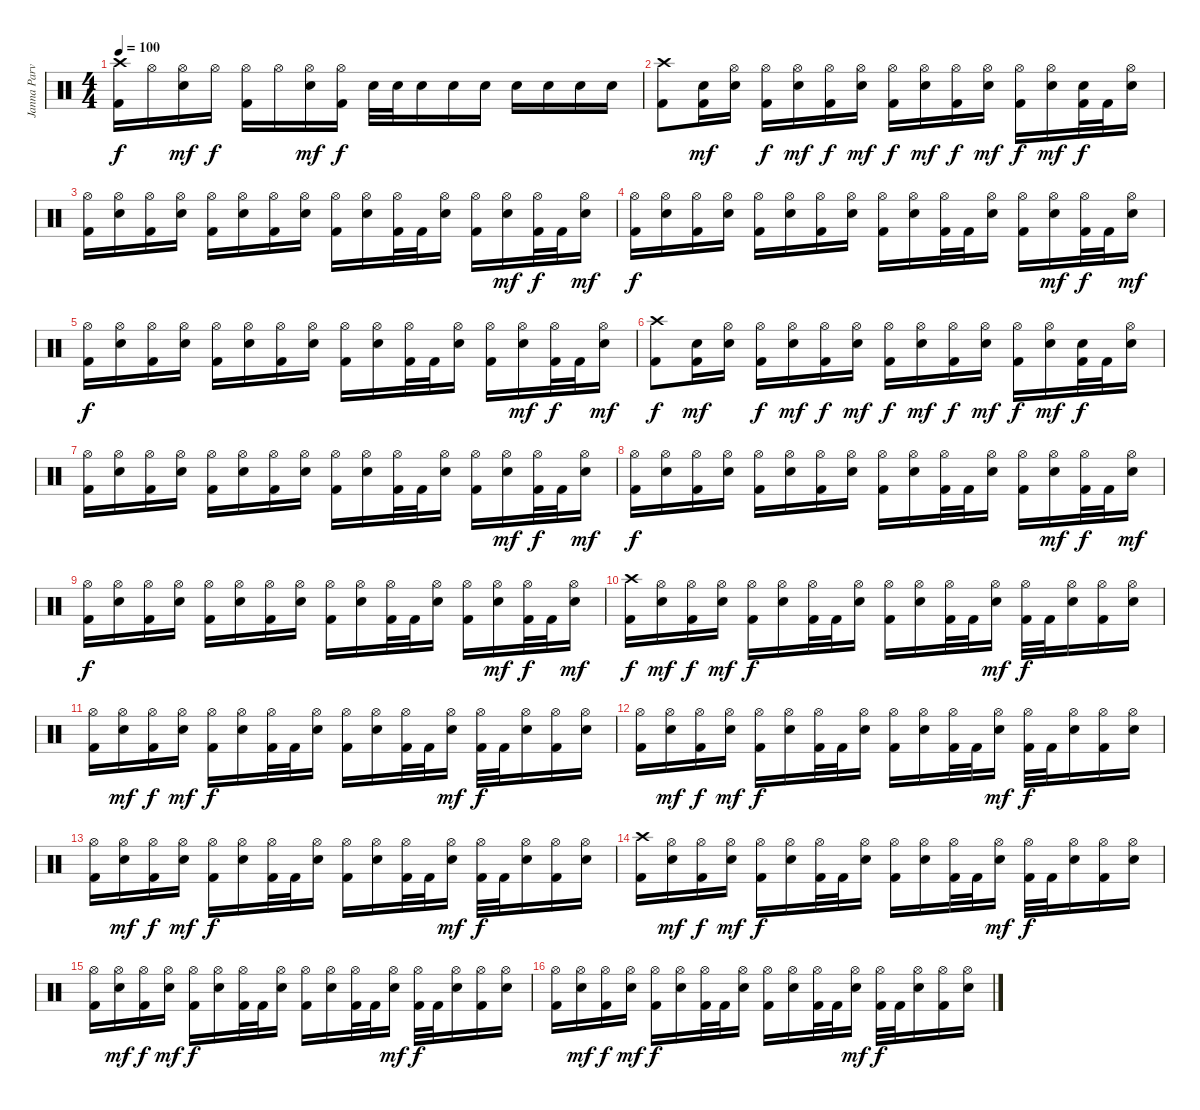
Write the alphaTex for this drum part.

\track ("Janna Parvienen" "Janna Parv") {solo instrument percussion}
\staff {score}
\articulation defaults
\ts (4 4)
\tempo 100
\clef neutral
\ks c
("Crash high (hit)" "Kick (hit) 2").16{dy f} "Hi-Hat (open)".16 ("Hi-Hat (open)" "Electric Snare (hit)").16{dy mf} "Hi-Hat (open)".16{dy f} ("Hi-Hat (open)" "Kick (hit) 2").16 "Hi-Hat (open)".16 ("Hi-Hat (open)" "Electric Snare (hit)").16{dy mf} ("Hi-Hat (open)" "Kick (hit) 2").16{dy f} "Electric Snare (hit)".32 "Electric Snare (hit)".32 "Electric Snare (hit)".16 "Electric Snare (hit)".16 "Electric Snare (hit)".16 "Electric Snare (hit)".16 "Electric Snare (hit)".16 "Electric Snare (hit)".16 "Electric Snare (hit)".16 |
("Crash high (hit)" "Kick (hit) 2").8 ("Electric Snare (hit)" "Kick (hit) 2").16{dy mf} ("Hi-Hat (open)" "Electric Snare (hit)").16 ("Hi-Hat (open)" "Kick (hit) 2").16{dy f} ("Hi-Hat (open)" "Electric Snare (hit)").16{dy mf} ("Hi-Hat (open)" "Kick (hit) 2").16{dy f} ("Hi-Hat (open)" "Electric Snare (hit)").16{dy mf} ("Hi-Hat (open)" "Kick (hit) 2").16{dy f} ("Hi-Hat (open)" "Electric Snare (hit)").16{dy mf} ("Hi-Hat (open)" "Kick (hit) 2").16{dy f} ("Hi-Hat (open)" "Electric Snare (hit)").16{dy mf} ("Hi-Hat (open)" "Kick (hit) 2").16{dy f} ("Hi-Hat (open)" "Electric Snare (hit)").16{dy mf} ("Electric Snare (hit)" "Kick (hit) 2").32{dy f} "Kick (hit) 2".32 ("Hi-Hat (open)" "Electric Snare (hit)").16 |
("Hi-Hat (open)" "Kick (hit) 2").16 ("Hi-Hat (open)" "Electric Snare (hit)").16 ("Hi-Hat (open)" "Kick (hit) 2").16 ("Hi-Hat (open)" "Electric Snare (hit)").16 ("Hi-Hat (open)" "Kick (hit) 2").16 ("Hi-Hat (open)" "Electric Snare (hit)").16 ("Hi-Hat (open)" "Kick (hit) 2").16 ("Hi-Hat (open)" "Electric Snare (hit)").16 ("Hi-Hat (open)" "Kick (hit) 2").16 ("Hi-Hat (open)" "Electric Snare (hit)").16 ("Hi-Hat (open)" "Kick (hit) 2").32 "Kick (hit) 2".32 ("Hi-Hat (open)" "Electric Snare (hit)").16 ("Hi-Hat (open)" "Kick (hit) 2").16 ("Hi-Hat (open)" "Electric Snare (hit)").16{dy mf} ("Hi-Hat (open)" "Kick (hit) 2").32{dy f} "Kick (hit) 2".32 ("Hi-Hat (open)" "Electric Snare (hit)").16{dy mf} |
("Hi-Hat (open)" "Kick (hit) 2").16{dy f} ("Hi-Hat (open)" "Electric Snare (hit)").16 ("Hi-Hat (open)" "Kick (hit) 2").16 ("Hi-Hat (open)" "Electric Snare (hit)").16 ("Hi-Hat (open)" "Kick (hit) 2").16 ("Hi-Hat (open)" "Electric Snare (hit)").16 ("Hi-Hat (open)" "Kick (hit) 2").16 ("Hi-Hat (open)" "Electric Snare (hit)").16 ("Hi-Hat (open)" "Kick (hit) 2").16 ("Hi-Hat (open)" "Electric Snare (hit)").16 ("Hi-Hat (open)" "Kick (hit) 2").32 "Kick (hit) 2".32 ("Hi-Hat (open)" "Electric Snare (hit)").16 ("Hi-Hat (open)" "Kick (hit) 2").16 ("Hi-Hat (open)" "Electric Snare (hit)").16{dy mf} ("Hi-Hat (open)" "Kick (hit) 2").32{dy f} "Kick (hit) 2".32 ("Hi-Hat (open)" "Electric Snare (hit)").16{dy mf} |
("Hi-Hat (open)" "Kick (hit) 2").16{dy f} ("Hi-Hat (open)" "Electric Snare (hit)").16 ("Hi-Hat (open)" "Kick (hit) 2").16 ("Hi-Hat (open)" "Electric Snare (hit)").16 ("Hi-Hat (open)" "Kick (hit) 2").16 ("Hi-Hat (open)" "Electric Snare (hit)").16 ("Hi-Hat (open)" "Kick (hit) 2").16 ("Hi-Hat (open)" "Electric Snare (hit)").16 ("Hi-Hat (open)" "Kick (hit) 2").16 ("Hi-Hat (open)" "Electric Snare (hit)").16 ("Hi-Hat (open)" "Kick (hit) 2").32 "Kick (hit) 2".32 ("Hi-Hat (open)" "Electric Snare (hit)").16 ("Hi-Hat (open)" "Kick (hit) 2").16 ("Hi-Hat (open)" "Electric Snare (hit)").16{dy mf} ("Hi-Hat (open)" "Kick (hit) 2").32{dy f} "Kick (hit) 2".32 ("Hi-Hat (open)" "Electric Snare (hit)").16{dy mf} |
("Crash high (hit)" "Kick (hit) 2").8{dy f} ("Electric Snare (hit)" "Kick (hit) 2").16{dy mf} ("Hi-Hat (open)" "Electric Snare (hit)").16 ("Hi-Hat (open)" "Kick (hit) 2").16{dy f} ("Hi-Hat (open)" "Electric Snare (hit)").16{dy mf} ("Hi-Hat (open)" "Kick (hit) 2").16{dy f} ("Hi-Hat (open)" "Electric Snare (hit)").16{dy mf} ("Hi-Hat (open)" "Kick (hit) 2").16{dy f} ("Hi-Hat (open)" "Electric Snare (hit)").16{dy mf} ("Hi-Hat (open)" "Kick (hit) 2").16{dy f} ("Hi-Hat (open)" "Electric Snare (hit)").16{dy mf} ("Hi-Hat (open)" "Kick (hit) 2").16{dy f} ("Hi-Hat (open)" "Electric Snare (hit)").16{dy mf} ("Electric Snare (hit)" "Kick (hit) 2").32{dy f} "Kick (hit) 2".32 ("Hi-Hat (open)" "Electric Snare (hit)").16 |
("Hi-Hat (open)" "Kick (hit) 2").16 ("Hi-Hat (open)" "Electric Snare (hit)").16 ("Hi-Hat (open)" "Kick (hit) 2").16 ("Hi-Hat (open)" "Electric Snare (hit)").16 ("Hi-Hat (open)" "Kick (hit) 2").16 ("Hi-Hat (open)" "Electric Snare (hit)").16 ("Hi-Hat (open)" "Kick (hit) 2").16 ("Hi-Hat (open)" "Electric Snare (hit)").16 ("Hi-Hat (open)" "Kick (hit) 2").16 ("Hi-Hat (open)" "Electric Snare (hit)").16 ("Hi-Hat (open)" "Kick (hit) 2").32 "Kick (hit) 2".32 ("Hi-Hat (open)" "Electric Snare (hit)").16 ("Hi-Hat (open)" "Kick (hit) 2").16 ("Hi-Hat (open)" "Electric Snare (hit)").16{dy mf} ("Hi-Hat (open)" "Kick (hit) 2").32{dy f} "Kick (hit) 2".32 ("Hi-Hat (open)" "Electric Snare (hit)").16{dy mf} |
("Hi-Hat (open)" "Kick (hit) 2").16{dy f} ("Hi-Hat (open)" "Electric Snare (hit)").16 ("Hi-Hat (open)" "Kick (hit) 2").16 ("Hi-Hat (open)" "Electric Snare (hit)").16 ("Hi-Hat (open)" "Kick (hit) 2").16 ("Hi-Hat (open)" "Electric Snare (hit)").16 ("Hi-Hat (open)" "Kick (hit) 2").16 ("Hi-Hat (open)" "Electric Snare (hit)").16 ("Hi-Hat (open)" "Kick (hit) 2").16 ("Hi-Hat (open)" "Electric Snare (hit)").16 ("Hi-Hat (open)" "Kick (hit) 2").32 "Kick (hit) 2".32 ("Hi-Hat (open)" "Electric Snare (hit)").16 ("Hi-Hat (open)" "Kick (hit) 2").16 ("Hi-Hat (open)" "Electric Snare (hit)").16{dy mf} ("Hi-Hat (open)" "Kick (hit) 2").32{dy f} "Kick (hit) 2".32 ("Hi-Hat (open)" "Electric Snare (hit)").16{dy mf} |
("Hi-Hat (open)" "Kick (hit) 2").16{dy f} ("Hi-Hat (open)" "Electric Snare (hit)").16 ("Hi-Hat (open)" "Kick (hit) 2").16 ("Hi-Hat (open)" "Electric Snare (hit)").16 ("Hi-Hat (open)" "Kick (hit) 2").16 ("Hi-Hat (open)" "Electric Snare (hit)").16 ("Hi-Hat (open)" "Kick (hit) 2").16 ("Hi-Hat (open)" "Electric Snare (hit)").16 ("Hi-Hat (open)" "Kick (hit) 2").16 ("Hi-Hat (open)" "Electric Snare (hit)").16 ("Hi-Hat (open)" "Kick (hit) 2").32 "Kick (hit) 2".32 ("Hi-Hat (open)" "Electric Snare (hit)").16 ("Hi-Hat (open)" "Kick (hit) 2").16 ("Hi-Hat (open)" "Electric Snare (hit)").16{dy mf} ("Hi-Hat (open)" "Kick (hit) 2").32{dy f} "Kick (hit) 2".32 ("Hi-Hat (open)" "Electric Snare (hit)").16{dy mf} |
("Crash high (hit)" "Kick (hit) 2").16{dy f} ("Hi-Hat (open)" "Electric Snare (hit)").16{dy mf} ("Hi-Hat (open)" "Kick (hit) 2").16{dy f} ("Hi-Hat (open)" "Electric Snare (hit)").16{dy mf} ("Hi-Hat (open)" "Kick (hit) 2").16{dy f} ("Hi-Hat (open)" "Electric Snare (hit)").16 ("Hi-Hat (open)" "Kick (hit) 2").32 "Kick (hit) 2".32 ("Hi-Hat (open)" "Electric Snare (hit)").16 ("Hi-Hat (open)" "Kick (hit) 2").16 ("Hi-Hat (open)" "Electric Snare (hit)").16 ("Hi-Hat (open)" "Kick (hit) 2").32 "Kick (hit) 2".32 ("Hi-Hat (open)" "Electric Snare (hit)").16{dy mf} ("Hi-Hat (open)" "Kick (hit) 2").32{dy f} "Kick (hit) 2".32 ("Hi-Hat (open)" "Electric Snare (hit)").16 ("Hi-Hat (open)" "Kick (hit) 2").16 ("Hi-Hat (open)" "Electric Snare (hit)").16 |
("Hi-Hat (open)" "Kick (hit) 2").16 ("Hi-Hat (open)" "Electric Snare (hit)").16{dy mf} ("Hi-Hat (open)" "Kick (hit) 2").16{dy f} ("Hi-Hat (open)" "Electric Snare (hit)").16{dy mf} ("Hi-Hat (open)" "Kick (hit) 2").16{dy f} ("Hi-Hat (open)" "Electric Snare (hit)").16 ("Hi-Hat (open)" "Kick (hit) 2").32 "Kick (hit) 2".32 ("Hi-Hat (open)" "Electric Snare (hit)").16 ("Hi-Hat (open)" "Kick (hit) 2").16 ("Hi-Hat (open)" "Electric Snare (hit)").16 ("Hi-Hat (open)" "Kick (hit) 2").32 "Kick (hit) 2".32 ("Hi-Hat (open)" "Electric Snare (hit)").16{dy mf} ("Hi-Hat (open)" "Kick (hit) 2").32{dy f} "Kick (hit) 2".32 ("Hi-Hat (open)" "Electric Snare (hit)").16 ("Hi-Hat (open)" "Kick (hit) 2").16 ("Hi-Hat (open)" "Electric Snare (hit)").16 |
("Hi-Hat (open)" "Kick (hit) 2").16 ("Hi-Hat (open)" "Electric Snare (hit)").16{dy mf} ("Hi-Hat (open)" "Kick (hit) 2").16{dy f} ("Hi-Hat (open)" "Electric Snare (hit)").16{dy mf} ("Hi-Hat (open)" "Kick (hit) 2").16{dy f} ("Hi-Hat (open)" "Electric Snare (hit)").16 ("Hi-Hat (open)" "Kick (hit) 2").32 "Kick (hit) 2".32 ("Hi-Hat (open)" "Electric Snare (hit)").16 ("Hi-Hat (open)" "Kick (hit) 2").16 ("Hi-Hat (open)" "Electric Snare (hit)").16 ("Hi-Hat (open)" "Kick (hit) 2").32 "Kick (hit) 2".32 ("Hi-Hat (open)" "Electric Snare (hit)").16{dy mf} ("Hi-Hat (open)" "Kick (hit) 2").32{dy f} "Kick (hit) 2".32 ("Hi-Hat (open)" "Electric Snare (hit)").16 ("Hi-Hat (open)" "Kick (hit) 2").16 ("Hi-Hat (open)" "Electric Snare (hit)").16 |
("Hi-Hat (open)" "Kick (hit) 2").16 ("Hi-Hat (open)" "Electric Snare (hit)").16{dy mf} ("Hi-Hat (open)" "Kick (hit) 2").16{dy f} ("Hi-Hat (open)" "Electric Snare (hit)").16{dy mf} ("Hi-Hat (open)" "Kick (hit) 2").16{dy f} ("Hi-Hat (open)" "Electric Snare (hit)").16 ("Hi-Hat (open)" "Kick (hit) 2").32 "Kick (hit) 2".32 ("Hi-Hat (open)" "Electric Snare (hit)").16 ("Hi-Hat (open)" "Kick (hit) 2").16 ("Hi-Hat (open)" "Electric Snare (hit)").16 ("Hi-Hat (open)" "Kick (hit) 2").32 "Kick (hit) 2".32 ("Hi-Hat (open)" "Electric Snare (hit)").16{dy mf} ("Hi-Hat (open)" "Kick (hit) 2").32{dy f} "Kick (hit) 2".32 ("Hi-Hat (open)" "Electric Snare (hit)").16 ("Hi-Hat (open)" "Kick (hit) 2").16 ("Hi-Hat (open)" "Electric Snare (hit)").16 |
("Crash high (hit)" "Kick (hit) 2").16 ("Hi-Hat (open)" "Electric Snare (hit)").16{dy mf} ("Hi-Hat (open)" "Kick (hit) 2").16{dy f} ("Hi-Hat (open)" "Electric Snare (hit)").16{dy mf} ("Hi-Hat (open)" "Kick (hit) 2").16{dy f} ("Hi-Hat (open)" "Electric Snare (hit)").16 ("Hi-Hat (open)" "Kick (hit) 2").32 "Kick (hit) 2".32 ("Hi-Hat (open)" "Electric Snare (hit)").16 ("Hi-Hat (open)" "Kick (hit) 2").16 ("Hi-Hat (open)" "Electric Snare (hit)").16 ("Hi-Hat (open)" "Kick (hit) 2").32 "Kick (hit) 2".32 ("Hi-Hat (open)" "Electric Snare (hit)").16{dy mf} ("Hi-Hat (open)" "Kick (hit) 2").32{dy f} "Kick (hit) 2".32 ("Hi-Hat (open)" "Electric Snare (hit)").16 ("Hi-Hat (open)" "Kick (hit) 2").16 ("Hi-Hat (open)" "Electric Snare (hit)").16 |
("Hi-Hat (open)" "Kick (hit) 2").16 ("Hi-Hat (open)" "Electric Snare (hit)").16{dy mf} ("Hi-Hat (open)" "Kick (hit) 2").16{dy f} ("Hi-Hat (open)" "Electric Snare (hit)").16{dy mf} ("Hi-Hat (open)" "Kick (hit) 2").16{dy f} ("Hi-Hat (open)" "Electric Snare (hit)").16 ("Hi-Hat (open)" "Kick (hit) 2").32 "Kick (hit) 2".32 ("Hi-Hat (open)" "Electric Snare (hit)").16 ("Hi-Hat (open)" "Kick (hit) 2").16 ("Hi-Hat (open)" "Electric Snare (hit)").16 ("Hi-Hat (open)" "Kick (hit) 2").32 "Kick (hit) 2".32 ("Hi-Hat (open)" "Electric Snare (hit)").16{dy mf} ("Hi-Hat (open)" "Kick (hit) 2").32{dy f} "Kick (hit) 2".32 ("Hi-Hat (open)" "Electric Snare (hit)").16 ("Hi-Hat (open)" "Kick (hit) 2").16 ("Hi-Hat (open)" "Electric Snare (hit)").16 |
("Hi-Hat (open)" "Kick (hit) 2").16 ("Hi-Hat (open)" "Electric Snare (hit)").16{dy mf} ("Hi-Hat (open)" "Kick (hit) 2").16{dy f} ("Hi-Hat (open)" "Electric Snare (hit)").16{dy mf} ("Hi-Hat (open)" "Kick (hit) 2").16{dy f} ("Hi-Hat (open)" "Electric Snare (hit)").16 ("Hi-Hat (open)" "Kick (hit) 2").32 "Kick (hit) 2".32 ("Hi-Hat (open)" "Electric Snare (hit)").16 ("Hi-Hat (open)" "Kick (hit) 2").16 ("Hi-Hat (open)" "Electric Snare (hit)").16 ("Hi-Hat (open)" "Kick (hit) 2").32 "Kick (hit) 2".32 ("Hi-Hat (open)" "Electric Snare (hit)").16{dy mf} ("Hi-Hat (open)" "Kick (hit) 2").32{dy f} "Kick (hit) 2".32 ("Hi-Hat (open)" "Electric Snare (hit)").16 ("Hi-Hat (open)" "Kick (hit) 2").16 ("Hi-Hat (open)" "Electric Snare (hit)").16
